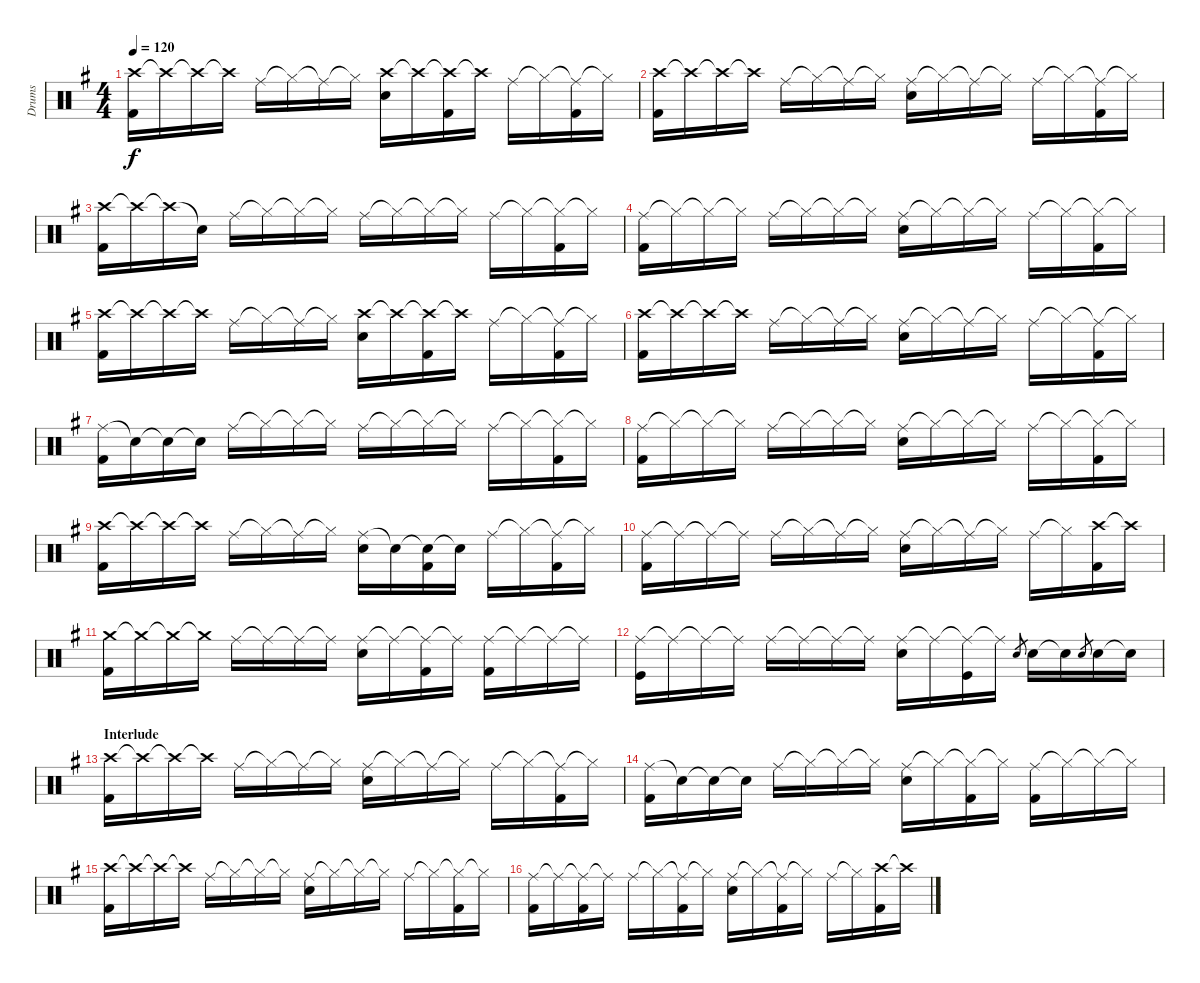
\track ("Drums" "Drums") {instrument percussion}
\staff {score}
\articulation defaults
\ts (4 4)
\tempo 120
\clef neutral
\ks g
("Crash high (hit)" "Kick (hit) 2").16{dy f} "Crash high (hit)"{t}.16 "Crash high (hit)"{t}.16 "Crash high (hit)"{t}.16 "Ride (middle)".16 "Hi-Hat (closed)"{t}.16 "Ride (middle)"{t}.16 "Hi-Hat (closed)"{t}.16 ("Crash high (hit)" "Snare (hit) 2").16 "Crash high (hit)"{t}.16 ("Crash high (hit)"{t} "Kick (hit) 2").16 "Crash high (hit)"{t}.16 "Ride (middle)".16 "Hi-Hat (closed)"{t}.16 ("Ride (middle)"{t} "Kick (hit) 2").16 "Hi-Hat (closed)"{t}.16 |
("Crash high (hit)" "Kick (hit) 2").16 "Crash high (hit)"{t}.16 "Crash high (hit)"{t}.16 "Crash high (hit)"{t}.16 "Ride (middle)".16 "Hi-Hat (closed)"{t}.16 "Ride (middle)"{t}.16 "Hi-Hat (closed)"{t}.16 ("Ride (middle)" "Snare (hit) 2").16 "Hi-Hat (closed)"{t}.16 "Ride (middle)"{t}.16 "Hi-Hat (closed)"{t}.16 "Ride (middle)".16 "Hi-Hat (closed)"{t}.16 ("Ride (middle)"{t} "Kick (hit) 2").16 "Hi-Hat (closed)"{t}.16 |
("Crash high (hit)" "Kick (hit) 2").16 "Crash high (hit)"{t}.16 "Crash high (hit)"{t}.16 "Snare (hit)"{t}.16 "Ride (middle)".16 "Hi-Hat (closed)"{t}.16 "Hi-Hat (closed)"{t}.16 "Hi-Hat (closed)"{t}.16 "Ride (middle)".16 "Hi-Hat (closed)"{t}.16 "Hi-Hat (closed)"{t}.16 "Hi-Hat (closed)"{t}.16 "Ride (middle)".16 "Hi-Hat (closed)"{t}.16 ("Hi-Hat (closed)"{t} "Kick (hit) 2").16 "Hi-Hat (closed)"{t}.16 |
("Ride (middle)" "Kick (hit) 2").16 "Hi-Hat (closed)"{t}.16 "Hi-Hat (closed)"{t}.16 "Hi-Hat (closed)"{t}.16 "Ride (middle)".16 "Hi-Hat (closed)"{t}.16 "Hi-Hat (closed)"{t}.16 "Hi-Hat (closed)"{t}.16 ("Ride (middle)" "Snare (hit) 2").16 "Hi-Hat (closed)"{t}.16 "Hi-Hat (closed)"{t}.16 "Hi-Hat (closed)"{t}.16 "Ride (middle)".16 "Hi-Hat (closed)"{t}.16 ("Hi-Hat (closed)"{t} "Kick (hit) 2").16 "Hi-Hat (closed)"{t}.16 |
("Crash high (hit)" "Kick (hit) 2").16 "Crash high (hit)"{t}.16 "Crash high (hit)"{t}.16 "Crash high (hit)"{t}.16 "Ride (middle)".16 "Hi-Hat (closed)"{t}.16 "Ride (middle)"{t}.16 "Hi-Hat (closed)"{t}.16 ("Crash high (hit)" "Snare (hit) 2").16 "Crash high (hit)"{t}.16 ("Crash high (hit)"{t} "Kick (hit) 2").16 "Crash high (hit)"{t}.16 "Ride (middle)".16 "Hi-Hat (closed)"{t}.16 ("Ride (middle)"{t} "Kick (hit) 2").16 "Hi-Hat (closed)"{t}.16 |
("Crash high (hit)" "Kick (hit) 2").16 "Crash high (hit)"{t}.16 "Crash high (hit)"{t}.16 "Crash high (hit)"{t}.16 "Ride (middle)".16 "Hi-Hat (closed)"{t}.16 "Ride (middle)"{t}.16 "Hi-Hat (closed)"{t}.16 ("Ride (middle)" "Snare (hit) 2").16 "Hi-Hat (closed)"{t}.16 "Ride (middle)"{t}.16 "Hi-Hat (closed)"{t}.16 "Ride (middle)".16 "Hi-Hat (closed)"{t}.16 ("Ride (middle)"{t} "Kick (hit) 2").16 "Hi-Hat (closed)"{t}.16 |
("Ride (middle)" "Kick (hit) 2").16 "Snare (hit)"{t}.16 "Snare (hit)"{t}.16 "Snare (hit)"{t}.16 "Ride (middle)".16 "Hi-Hat (closed)"{t}.16 "Hi-Hat (closed)"{t}.16 "Hi-Hat (closed)"{t}.16 "Ride (middle)".16 "Hi-Hat (closed)"{t}.16 "Hi-Hat (closed)"{t}.16 "Hi-Hat (closed)"{t}.16 "Ride (middle)".16 "Hi-Hat (closed)"{t}.16 ("Hi-Hat (closed)"{t} "Kick (hit) 2").16 "Hi-Hat (closed)"{t}.16 |
("Ride (middle)" "Kick (hit) 2").16 "Hi-Hat (closed)"{t}.16 "Hi-Hat (closed)"{t}.16 "Hi-Hat (closed)"{t}.16 "Ride (middle)".16 "Hi-Hat (closed)"{t}.16 "Hi-Hat (closed)"{t}.16 "Hi-Hat (closed)"{t}.16 ("Ride (middle)" "Snare (hit) 2").16 "Hi-Hat (closed)"{t}.16 "Hi-Hat (closed)"{t}.16 "Hi-Hat (closed)"{t}.16 "Ride (middle)".16 "Hi-Hat (closed)"{t}.16 ("Hi-Hat (closed)"{t} "Kick (hit) 2").16 "Hi-Hat (closed)"{t}.16 |
("Crash high (hit)" "Kick (hit) 2").16 "Crash high (hit)"{t}.16 "Crash high (hit)"{t}.16 "Crash high (hit)"{t}.16 "Ride (middle)".16 "Hi-Hat (closed)"{t}.16 "Ride (middle)"{t}.16 "Hi-Hat (closed)"{t}.16 ("Ride (middle)" "Snare (hit) 2").16 "Snare (hit)"{t}.16 ("Snare (hit)"{t} "Kick (hit) 2").16 "Snare (hit)"{t}.16 "Ride (middle)".16 "Hi-Hat (closed)"{t}.16 ("Ride (middle)"{t} "Kick (hit) 2").16 "Hi-Hat (closed)"{t}.16 |
("Ride (middle)" "Kick (hit) 2").16 "Ride (middle)"{t}.16 "Ride (middle)"{t}.16 "Ride (middle)"{t}.16 "Ride (middle)".16 "Hi-Hat (closed)"{t}.16 "Ride (middle)"{t}.16 "Hi-Hat (closed)"{t}.16 ("Ride (middle)" "Snare (hit) 2").16 "Hi-Hat (closed)"{t}.16 "Ride (middle)"{t}.16 "Hi-Hat (closed)"{t}.16 "Ride (middle)".16 "Hi-Hat (closed)"{t}.16 ("Crash high (hit)" "Kick (hit) 2").16 "Crash high (hit)"{t}.16 |
("Crash medium (hit)" "Kick (hit) 2").16 "Crash medium (hit)"{t}.16 "Crash medium (hit)"{t}.16 "Crash medium (hit)"{t}.16 "Ride (middle)".16 "Ride (middle)"{t}.16 "Ride (middle)"{t}.16 "Ride (middle)"{t}.16 ("Ride (middle)" "Snare (hit) 2").16 "Ride (middle)"{t}.16 ("Ride (middle)"{t} "Kick (hit) 2").16 "Ride (middle)"{t}.16 ("Ride (middle)" "Kick (hit) 2").16 "Ride (middle)"{t}.16 "Ride (middle)"{t}.16 "Ride (middle)"{t}.16 |
("Ride (middle)" "Kick (hit)").16 "Ride (middle)"{t}.16 "Ride (middle)"{t}.16 "Ride (middle)"{t}.16 "Ride (middle)".16 "Ride (middle)"{t}.16 "Ride (middle)"{t}.16 "Ride (middle)"{t}.16 ("Ride (middle)" "Snare (hit) 2").16 "Ride (middle)"{t}.16 ("Ride (middle)"{t} "Kick (hit)").16 "Ride (middle)"{t}.16 "Snare (hit) 2".8{gr} "Snare (hit) 2".16 "Snare (hit) 2"{t}.16 "Snare (hit) 2".8{gr} "Snare (hit) 2".16 "Snare (hit) 2"{t}.16 |
\section ("" "Interlude")
("Crash high (hit)" "Kick (hit) 2").16 "Crash high (hit)"{t}.16 "Crash high (hit)"{t}.16 "Crash high (hit)"{t}.16 "Ride (middle)".16 "Hi-Hat (closed)"{t}.16 "Ride (middle)"{t}.16 "Hi-Hat (closed)"{t}.16 ("Ride (middle)" "Snare (hit) 2").16 "Hi-Hat (closed)"{t}.16 "Ride (middle)"{t}.16 "Hi-Hat (closed)"{t}.16 "Ride (middle)".16 "Hi-Hat (closed)"{t}.16 ("Ride (middle)"{t} "Kick (hit) 2").16 "Hi-Hat (closed)"{t}.16 |
("Ride (middle)" "Kick (hit) 2").16 "Snare (hit)"{t}.16 "Snare (hit)"{t}.16 "Snare (hit)"{t}.16 "Ride (middle)".16 "Hi-Hat (closed)"{t}.16 "Hi-Hat (closed)"{t}.16 "Hi-Hat (closed)"{t}.16 ("Ride (middle)" "Snare (hit) 2").16 "Hi-Hat (closed)"{t}.16 ("Hi-Hat (closed)"{t} "Kick (hit) 2").16 "Hi-Hat (closed)"{t}.16 ("Ride (middle)" "Kick (hit) 2").16 "Hi-Hat (closed)"{t}.16 "Hi-Hat (closed)"{t}.16 "Hi-Hat (closed)"{t}.16 |
("Crash high (hit)" "Kick (hit) 2").16 "Crash high (hit)"{t}.16 "Crash high (hit)"{t}.16 "Crash high (hit)"{t}.16 "Ride (middle)".16 "Hi-Hat (closed)"{t}.16 "Hi-Hat (closed)"{t}.16 "Hi-Hat (closed)"{t}.16 ("Ride (middle)" "Snare (hit) 2").16 "Hi-Hat (closed)"{t}.16 "Hi-Hat (closed)"{t}.16 "Hi-Hat (closed)"{t}.16 "Ride (middle)".16 "Hi-Hat (closed)"{t}.16 ("Hi-Hat (closed)"{t} "Kick (hit) 2").16 "Hi-Hat (closed)"{t}.16 |
("Ride (middle)" "Kick (hit) 2").16 "Ride (middle)"{t}.16 ("Ride (middle)"{t} "Kick (hit) 2").16 "Ride (middle)"{t}.16 "Ride (middle)".16 "Hi-Hat (closed)"{t}.16 ("Ride (middle)"{t} "Kick (hit) 2").16 "Hi-Hat (closed)"{t}.16 ("Ride (middle)" "Snare (hit) 2").16 "Hi-Hat (closed)"{t}.16 ("Ride (middle)"{t} "Kick (hit) 2").16 "Hi-Hat (closed)"{t}.16 "Ride (middle)".16 "Hi-Hat (closed)"{t}.16 ("Crash high (hit)" "Kick (hit) 2").16 "Crash high (hit)"{t}.16
